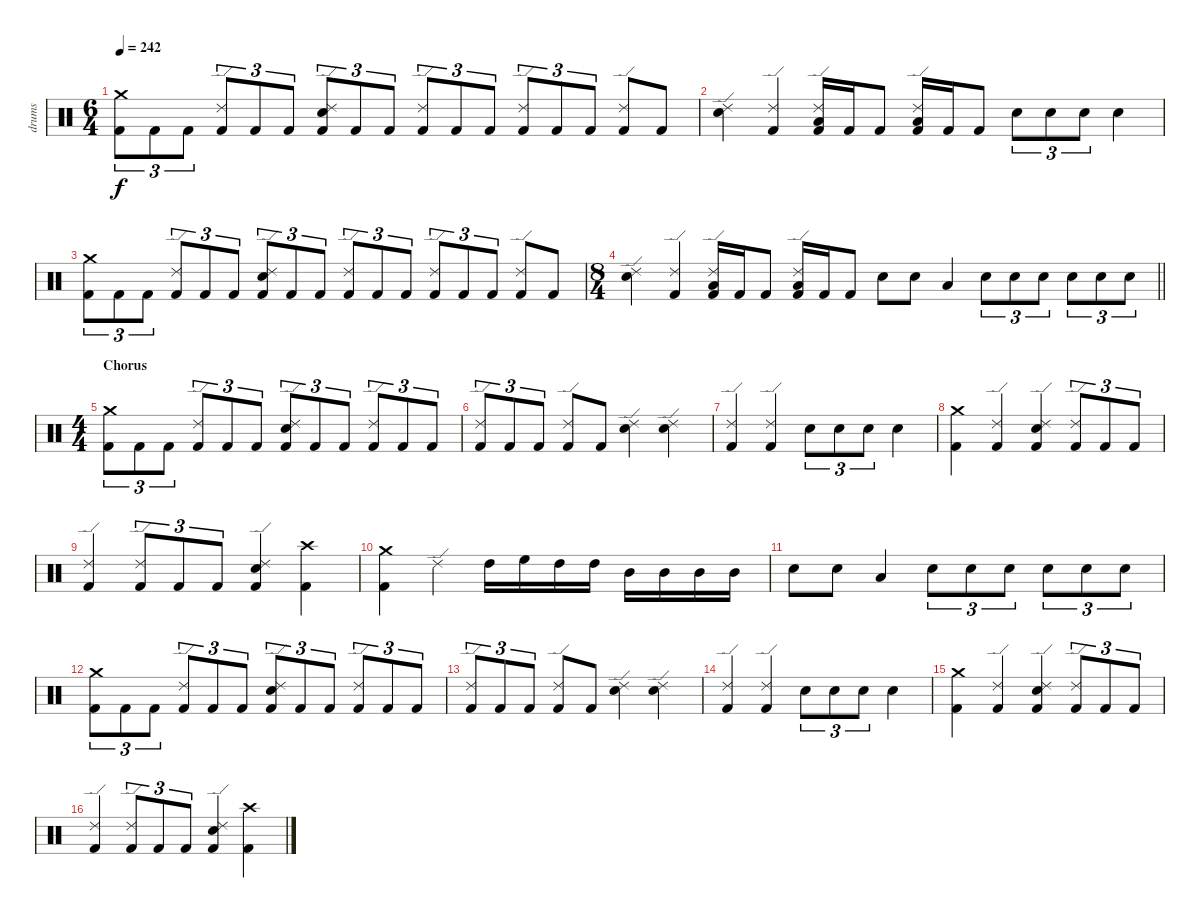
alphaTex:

\track ("drums" "drums") {instrument percussion}
\staff {score}
\articulation defaults
\ts (6 4)
\tempo 242
\clef neutral
\ks c
("Crash medium (hit)" "Kick (hit) 2").8{tu (3 2) dy f} "Kick (hit) 2".8{tu (3 2)} "Kick (hit) 2".8{tu (3 2)} ("Ride (edge) 2" "Kick (hit) 2").8{tu (3 2)} "Kick (hit) 2".8{tu (3 2)} "Kick (hit) 2".8{tu (3 2)} ("Ride (edge) 2" "Electric Snare (hit)" "Kick (hit) 2").8{tu (3 2)} "Kick (hit) 2".8{tu (3 2)} "Kick (hit) 2".8{tu (3 2)} ("Ride (edge) 2" "Kick (hit) 2").8{tu (3 2)} "Kick (hit) 2".8{tu (3 2)} "Kick (hit) 2".8{tu (3 2)} ("Ride (edge) 2" "Kick (hit) 2").8{tu (3 2)} "Kick (hit) 2".8{tu (3 2)} "Kick (hit) 2".8{tu (3 2)} ("Ride (edge) 2" "Kick (hit) 2").8 "Kick (hit) 2".8 |
("Ride (edge) 2" "Electric Snare (hit)").4 ("Ride (edge) 2" "Kick (hit) 2").4 ("Ride (edge) 2" "Low Tom (hit)" "Kick (hit) 2").16 "Kick (hit) 2".16 "Kick (hit) 2".8 ("Ride (edge) 2" "Low Tom (hit)" "Kick (hit) 2").16 "Kick (hit) 2".16 "Kick (hit) 2".8 "Electric Snare (hit)".8{tu (3 2)} "Electric Snare (hit)".8{tu (3 2)} "Electric Snare (hit)".8{tu (3 2)} "Electric Snare (hit)".4 |
("Crash medium (hit)" "Kick (hit) 2").8{tu (3 2)} "Kick (hit) 2".8{tu (3 2)} "Kick (hit) 2".8{tu (3 2)} ("Ride (edge) 2" "Kick (hit) 2").8{tu (3 2)} "Kick (hit) 2".8{tu (3 2)} "Kick (hit) 2".8{tu (3 2)} ("Ride (edge) 2" "Electric Snare (hit)" "Kick (hit) 2").8{tu (3 2)} "Kick (hit) 2".8{tu (3 2)} "Kick (hit) 2".8{tu (3 2)} ("Ride (edge) 2" "Kick (hit) 2").8{tu (3 2)} "Kick (hit) 2".8{tu (3 2)} "Kick (hit) 2".8{tu (3 2)} ("Ride (edge) 2" "Kick (hit) 2").8{tu (3 2)} "Kick (hit) 2".8{tu (3 2)} "Kick (hit) 2".8{tu (3 2)} ("Ride (edge) 2" "Kick (hit) 2").8 "Kick (hit) 2".8 |
\ts (8 4)
\barLineRight lightlight
("Ride (edge) 2" "Electric Snare (hit)").4 ("Ride (edge) 2" "Kick (hit) 2").4 ("Ride (edge) 2" "Low Tom (hit)" "Kick (hit) 2").16 "Kick (hit) 2".16 "Kick (hit) 2".8 ("Ride (edge) 2" "Low Tom (hit)" "Kick (hit) 2").16 "Kick (hit) 2".16 "Kick (hit) 2".8 "Electric Snare (hit)".8 "Electric Snare (hit)".8 "Low Tom (hit)".4 "Electric Snare (hit)".8{tu (3 2)} "Electric Snare (hit)".8{tu (3 2)} "Electric Snare (hit)".8{tu (3 2)} "Electric Snare (hit)".8{tu (3 2)} "Electric Snare (hit)".8{tu (3 2)} "Electric Snare (hit)".8{tu (3 2)} |
\ts (4 4)
\section ("" "Chorus")
("Crash medium (hit)" "Kick (hit) 2").8{tu (3 2)} "Kick (hit) 2".8{tu (3 2)} "Kick (hit) 2".8{tu (3 2)} ("Ride (edge) 2" "Kick (hit) 2").8{tu (3 2)} "Kick (hit) 2".8{tu (3 2)} "Kick (hit) 2".8{tu (3 2)} ("Ride (edge) 2" "Electric Snare (hit)" "Kick (hit) 2").8{tu (3 2)} "Kick (hit) 2".8{tu (3 2)} "Kick (hit) 2".8{tu (3 2)} ("Ride (edge) 2" "Kick (hit) 2").8{tu (3 2)} "Kick (hit) 2".8{tu (3 2)} "Kick (hit) 2".8{tu (3 2)} |
("Ride (edge) 2" "Kick (hit) 2").8{tu (3 2)} "Kick (hit) 2".8{tu (3 2)} "Kick (hit) 2".8{tu (3 2)} ("Ride (edge) 2" "Kick (hit) 2").8 "Kick (hit) 2".8 ("Ride (edge) 2" "Electric Snare (hit)").4 ("Ride (edge) 2" "Electric Snare (hit)").4 |
("Ride (edge) 2" "Kick (hit) 2").4 ("Ride (edge) 2" "Kick (hit) 2").4 "Electric Snare (hit)".8{tu (3 2)} "Electric Snare (hit)".8{tu (3 2)} "Electric Snare (hit)".8{tu (3 2)} "Electric Snare (hit)".4 |
("Crash medium (hit)" "Kick (hit) 2").4 ("Ride (edge) 2" "Kick (hit) 2").4 ("Ride (edge) 2" "Electric Snare (hit)" "Kick (hit) 2").4 ("Ride (edge) 2" "Kick (hit) 2").8{tu (3 2)} "Kick (hit) 2".8{tu (3 2)} "Kick (hit) 2".8{tu (3 2)} |
("Ride (edge) 2" "Kick (hit) 2").4 ("Ride (edge) 2" "Kick (hit) 2").8{tu (3 2)} "Kick (hit) 2".8{tu (3 2)} "Kick (hit) 2".8{tu (3 2)} ("Ride (edge) 2" "Electric Snare (hit)" "Kick (hit) 2").4 ("Crash high (hit)" "Kick (hit) 2").4 |
("Crash medium (hit)" "Kick (hit) 2").4 "Ride (edge) 2".4 "High Tom (hit)".16 "High Floor Tom (hit)".16 "High Tom (hit)".16 "High Tom (hit)".16 "Mid Tom (hit)".16 "Mid Tom (hit)".16 "Mid Tom (hit)".16 "Mid Tom (hit)".16 |
"Electric Snare (hit)".8 "Electric Snare (hit)".8 "Low Tom (hit)".4 "Electric Snare (hit)".8{tu (3 2)} "Electric Snare (hit)".8{tu (3 2)} "Electric Snare (hit)".8{tu (3 2)} "Electric Snare (hit)".8{tu (3 2)} "Electric Snare (hit)".8{tu (3 2)} "Electric Snare (hit)".8{tu (3 2)} |
("Crash medium (hit)" "Kick (hit) 2").8{tu (3 2)} "Kick (hit) 2".8{tu (3 2)} "Kick (hit) 2".8{tu (3 2)} ("Ride (edge) 2" "Kick (hit) 2").8{tu (3 2)} "Kick (hit) 2".8{tu (3 2)} "Kick (hit) 2".8{tu (3 2)} ("Ride (edge) 2" "Electric Snare (hit)" "Kick (hit) 2").8{tu (3 2)} "Kick (hit) 2".8{tu (3 2)} "Kick (hit) 2".8{tu (3 2)} ("Ride (edge) 2" "Kick (hit) 2").8{tu (3 2)} "Kick (hit) 2".8{tu (3 2)} "Kick (hit) 2".8{tu (3 2)} |
("Ride (edge) 2" "Kick (hit) 2").8{tu (3 2)} "Kick (hit) 2".8{tu (3 2)} "Kick (hit) 2".8{tu (3 2)} ("Ride (edge) 2" "Kick (hit) 2").8 "Kick (hit) 2".8 ("Ride (edge) 2" "Electric Snare (hit)").4 ("Ride (edge) 2" "Electric Snare (hit)").4 |
("Ride (edge) 2" "Kick (hit) 2").4 ("Ride (edge) 2" "Kick (hit) 2").4 "Electric Snare (hit)".8{tu (3 2)} "Electric Snare (hit)".8{tu (3 2)} "Electric Snare (hit)".8{tu (3 2)} "Electric Snare (hit)".4 |
("Crash medium (hit)" "Kick (hit) 2").4 ("Ride (edge) 2" "Kick (hit) 2").4 ("Ride (edge) 2" "Electric Snare (hit)" "Kick (hit) 2").4 ("Ride (edge) 2" "Kick (hit) 2").8{tu (3 2)} "Kick (hit) 2".8{tu (3 2)} "Kick (hit) 2".8{tu (3 2)} |
("Ride (edge) 2" "Kick (hit) 2").4 ("Ride (edge) 2" "Kick (hit) 2").8{tu (3 2)} "Kick (hit) 2".8{tu (3 2)} "Kick (hit) 2".8{tu (3 2)} ("Ride (edge) 2" "Electric Snare (hit)" "Kick (hit) 2").4 ("Crash high (hit)" "Kick (hit) 2").4
